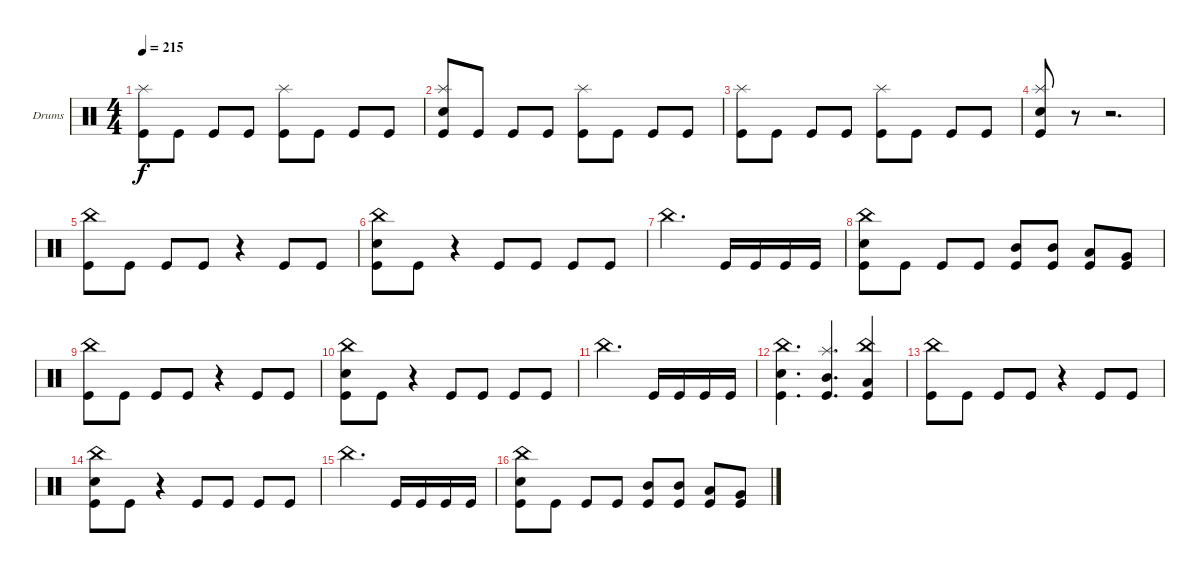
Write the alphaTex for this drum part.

\defaultSystemsLayout 4
\bracketExtendMode groupsimilarinstruments
\firstSystemTrackNameOrientation horizontal
\otherSystemsTrackNameOrientation horizontal
\track ("Drumkit" "Drums") {instrument percussion}
\staff {score}
\articulation defaults
\ts (4 4)
\tempo 215
\clef neutral
\ks c
("Kick (hit)" "Splash (hit)").8{dy f} "Kick (hit)".8 "Kick (hit)".8 "Kick (hit)".8 ("Kick (hit)" "Splash (hit)").8 "Kick (hit)".8 "Kick (hit)".8 "Kick (hit)".8 |
("Kick (hit)" "Splash (hit)" "Snare (hit) 2").8 "Kick (hit)".8 "Kick (hit)".8 "Kick (hit)".8 ("Kick (hit)" "Splash (hit)").8 "Kick (hit)".8 "Kick (hit)".8 "Kick (hit)".8 |
("Kick (hit)" "Splash (hit)").8 "Kick (hit)".8 "Kick (hit)".8 "Kick (hit)".8 ("Kick (hit)" "Splash (hit)").8 "Kick (hit)".8 "Kick (hit)".8 "Kick (hit)".8 |
("Kick (hit)" "Splash (hit)" "Snare (hit) 2").8 r.8 r.2{d} |
("Kick (hit)" "China (hit)").8 "Kick (hit)".8 "Kick (hit)".8 "Kick (hit)".8 r.4 "Kick (hit)".8 "Kick (hit)".8 |
("Kick (hit)" "China (hit)" "Snare (hit) 2").8 "Kick (hit)".8 r.4 "Kick (hit)".8 "Kick (hit)".8 "Kick (hit)".8 "Kick (hit)".8 |
"China (hit)".2{d} "Kick (hit)".16 "Kick (hit)".16 "Kick (hit)".16 "Kick (hit)".16 |
("Kick (hit)" "Snare (hit) 2" "China (hit)").8 "Kick (hit)".8 "Kick (hit)".8 "Kick (hit)".8 ("Kick (hit)" "Mid Tom (hit)").8 ("Kick (hit)" "Mid Tom (hit)").8 ("Kick (hit)" "Low Tom (hit)").8 ("Kick (hit)" "Very Low Tom (hit)").8 |
("Kick (hit)" "China (hit)").8 "Kick (hit)".8 "Kick (hit)".8 "Kick (hit)".8 r.4 "Kick (hit)".8 "Kick (hit)".8 |
("Kick (hit)" "China (hit)" "Snare (hit) 2").8 "Kick (hit)".8 r.4 "Kick (hit)".8 "Kick (hit)".8 "Kick (hit)".8 "Kick (hit)".8 |
"China (hit)".2{d} "Kick (hit)".16 "Kick (hit)".16 "Kick (hit)".16 "Kick (hit)".16 |
("Kick (hit)" "Snare (hit) 2" "China (hit)").4{d} ("Kick (hit)" "Mid Tom (hit)" "Splash (hit)").4{d} ("Kick (hit)" "Low Tom (hit)" "China (hit)").4 |
("Kick (hit)" "China (hit)").8 "Kick (hit)".8 "Kick (hit)".8 "Kick (hit)".8 r.4 "Kick (hit)".8 "Kick (hit)".8 |
("Kick (hit)" "China (hit)" "Snare (hit) 2").8 "Kick (hit)".8 r.4 "Kick (hit)".8 "Kick (hit)".8 "Kick (hit)".8 "Kick (hit)".8 |
"China (hit)".2{d} "Kick (hit)".16 "Kick (hit)".16 "Kick (hit)".16 "Kick (hit)".16 |
("Kick (hit)" "Snare (hit) 2" "China (hit)").8 "Kick (hit)".8 "Kick (hit)".8 "Kick (hit)".8 ("Kick (hit)" "Mid Tom (hit)").8 ("Kick (hit)" "Mid Tom (hit)").8 ("Kick (hit)" "Low Tom (hit)").8 ("Kick (hit)" "Very Low Tom (hit)").8
